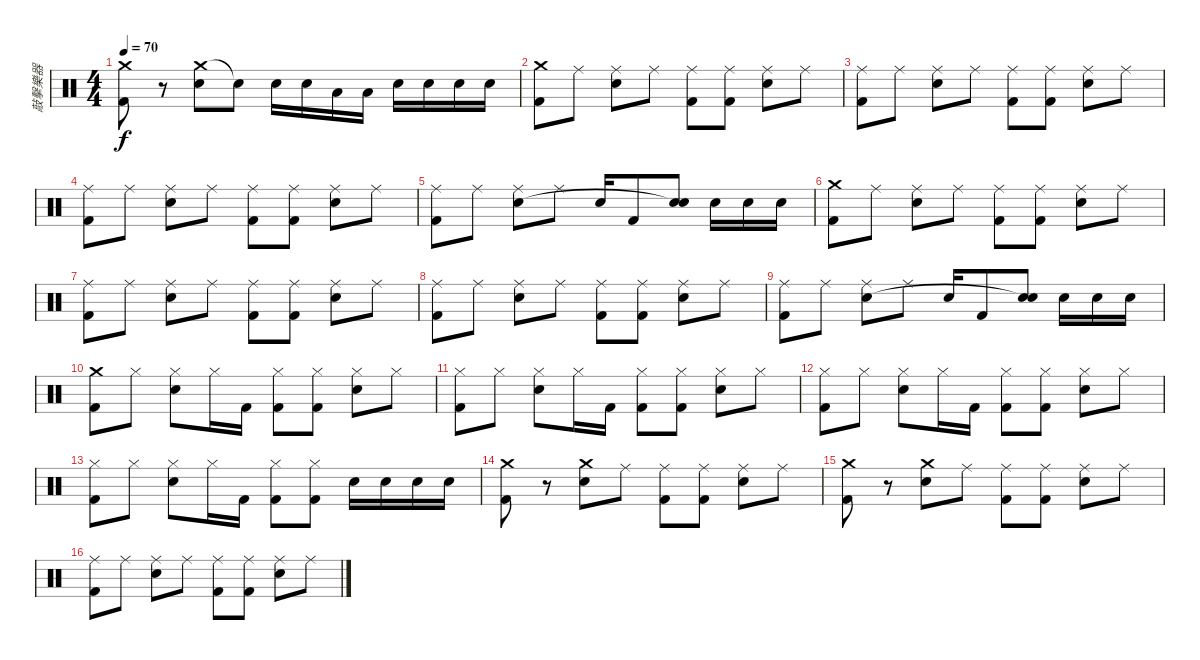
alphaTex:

\track ("敲擊樂器" "敲擊樂器") {instrument percussion}
\staff {score}
\articulation defaults
\ts (4 4)
\tempo 70
\clef neutral
\ks c
("Crash medium (hit)" "Kick (hit) 2").8{dy f} r.8 ("Crash medium (hit)" "Snare (hit) 2").8 "Snare (hit) 2"{t}.8 "Snare (hit) 2".16 "Snare (hit) 2".16 "Low Floor Tom (hit)".16 "Low Floor Tom (hit)".16 "Snare (hit) 2".16 "Snare (hit) 2".16 "Snare (hit) 2".16 "Snare (hit) 2".16 |
("Crash medium (hit)" "Kick (hit) 2").8 "Ride (middle)".8 ("Ride (middle)" "Snare (hit) 2").8 "Ride (middle)".8 ("Ride (middle)" "Kick (hit) 2").8 ("Ride (middle)" "Kick (hit) 2").8 ("Ride (middle)" "Snare (hit) 2").8 "Ride (middle)".8 |
("Ride (middle)" "Kick (hit) 2").8 "Ride (middle)".8 ("Ride (middle)" "Snare (hit) 2").8 "Ride (middle)".8 ("Ride (middle)" "Kick (hit) 2").8 ("Ride (middle)" "Kick (hit) 2").8 ("Ride (middle)" "Snare (hit) 2").8 "Ride (middle)".8 |
("Ride (middle)" "Kick (hit) 2").8 "Ride (middle)".8 ("Ride (middle)" "Snare (hit) 2").8 "Ride (middle)".8 ("Ride (middle)" "Kick (hit) 2").8 ("Ride (middle)" "Kick (hit) 2").8 ("Ride (middle)" "Snare (hit) 2").8 "Ride (middle)".8 |
("Ride (middle)" "Kick (hit) 2").8 "Ride (middle)".8 ("Ride (middle)" "Snare (hit) 2").8 "Ride (middle)".8 "Snare (hit) 2".16 "Kick (hit) 2".8 ("Snare (hit) 2" "Snare (hit)"{t}).8 "Snare (hit) 2".16 "Snare (hit) 2".16 "Snare (hit) 2".16 |
("Crash medium (hit)" "Kick (hit) 2").8 "Ride (middle)".8 ("Ride (middle)" "Snare (hit) 2").8 "Ride (middle)".8 ("Ride (middle)" "Kick (hit) 2").8 ("Ride (middle)" "Kick (hit) 2").8 ("Ride (middle)" "Snare (hit) 2").8 "Ride (middle)".8 |
("Ride (middle)" "Kick (hit) 2").8 "Ride (middle)".8 ("Ride (middle)" "Snare (hit) 2").8 "Ride (middle)".8 ("Ride (middle)" "Kick (hit) 2").8 ("Ride (middle)" "Kick (hit) 2").8 ("Ride (middle)" "Snare (hit) 2").8 "Ride (middle)".8 |
("Ride (middle)" "Kick (hit) 2").8 "Ride (middle)".8 ("Ride (middle)" "Snare (hit) 2").8 "Ride (middle)".8 ("Ride (middle)" "Kick (hit) 2").8 ("Ride (middle)" "Kick (hit) 2").8 ("Ride (middle)" "Snare (hit) 2").8 "Ride (middle)".8 |
("Ride (middle)" "Kick (hit) 2").8 "Ride (middle)".8 ("Ride (middle)" "Snare (hit) 2").8 "Ride (middle)".8 "Snare (hit) 2".16 "Kick (hit) 2".8 ("Snare (hit) 2" "Snare (hit)"{t}).8 "Snare (hit) 2".16 "Snare (hit) 2".16 "Snare (hit) 2".16 |
("Crash medium (hit)" "Kick (hit) 2").8 "Hi-Hat (closed)".8 ("Hi-Hat (closed)" "Snare (hit) 2").8 "Hi-Hat (closed)".16 "Kick (hit) 2".16 ("Hi-Hat (closed)" "Kick (hit) 2").8 ("Hi-Hat (closed)" "Kick (hit) 2").8 ("Hi-Hat (closed)" "Snare (hit) 2").8 "Hi-Hat (closed)".8 |
("Hi-Hat (closed)" "Kick (hit) 2").8 "Hi-Hat (closed)".8 ("Hi-Hat (closed)" "Snare (hit) 2").8 "Hi-Hat (closed)".16 "Kick (hit) 2".16 ("Hi-Hat (closed)" "Kick (hit) 2").8 ("Hi-Hat (closed)" "Kick (hit) 2").8 ("Hi-Hat (closed)" "Snare (hit) 2").8 "Hi-Hat (closed)".8 |
("Hi-Hat (closed)" "Kick (hit) 2").8 "Hi-Hat (closed)".8 ("Hi-Hat (closed)" "Snare (hit) 2").8 "Hi-Hat (closed)".16 "Kick (hit) 2".16 ("Hi-Hat (closed)" "Kick (hit) 2").8 ("Hi-Hat (closed)" "Kick (hit) 2").8 ("Hi-Hat (closed)" "Snare (hit) 2").8 "Hi-Hat (closed)".8 |
("Hi-Hat (closed)" "Kick (hit) 2").8 "Hi-Hat (closed)".8 ("Hi-Hat (closed)" "Snare (hit) 2").8 "Hi-Hat (closed)".16 "Kick (hit) 2".16 ("Hi-Hat (closed)" "Kick (hit) 2").8 ("Hi-Hat (closed)" "Kick (hit) 2").8 "Snare (hit) 2".16 "Snare (hit) 2".16 "Snare (hit) 2".16 "Snare (hit) 2".16 |
("Crash medium (hit)" "Kick (hit) 2").8 r.8 ("Crash medium (hit)" "Snare (hit) 2").8 "Ride (middle)".8 ("Ride (middle)" "Kick (hit) 2").8 ("Ride (middle)" "Kick (hit) 2").8 ("Ride (middle)" "Snare (hit) 2").8 "Ride (middle)".8 |
("Crash medium (hit)" "Kick (hit) 2").8 r.8 ("Crash medium (hit)" "Snare (hit) 2").8 "Ride (middle)".8 ("Ride (middle)" "Kick (hit) 2").8 ("Ride (middle)" "Kick (hit) 2").8 ("Ride (middle)" "Snare (hit) 2").8 "Ride (middle)".8 |
("Ride (middle)" "Kick (hit) 2").8 "Ride (middle)".8 ("Ride (middle)" "Snare (hit) 2").8 "Ride (middle)".8 ("Ride (middle)" "Kick (hit) 2").8 ("Ride (middle)" "Kick (hit) 2").8 ("Ride (middle)" "Snare (hit) 2").8 "Ride (middle)".8
